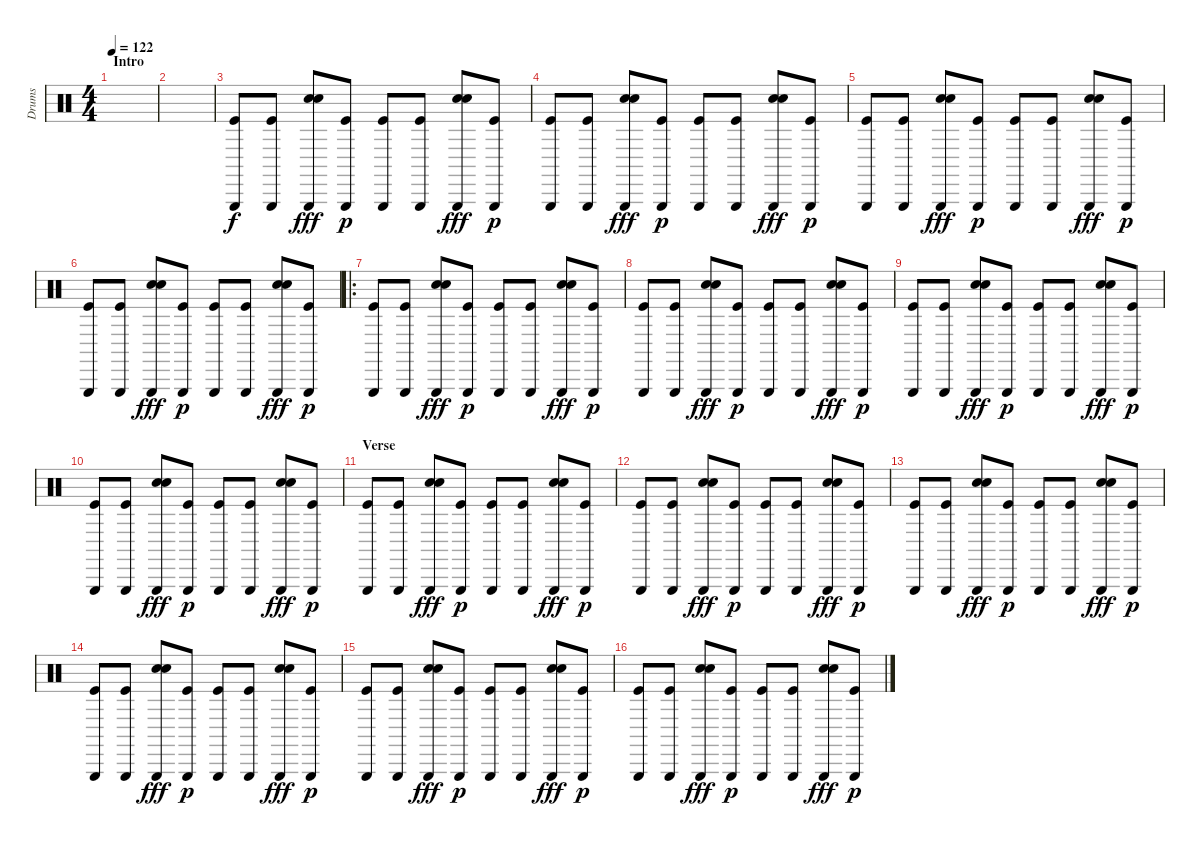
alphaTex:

\track ("Drums" "Drums") {instrument percussion}
\staff {score}
\articulation defaults
\ts (4 4)
\section ("" "Intro")
\tempo 122
\clef neutral
\ks c
|
|
("Triangle (hit)" "Kick (hit)").8 ("Triangle (hit)" "Kick (hit)").8 ("Triangle (hit)" "Snare (hit) 2" "Hand Clap (hit)").8{dy fff} ("Triangle (hit)" "Kick (hit)").8{dy p} ("Triangle (hit)" "Kick (hit)").8 ("Triangle (hit)" "Kick (hit)").8 ("Triangle (hit)" "Snare (hit) 2" "Hand Clap (hit)").8{dy fff} ("Triangle (hit)" "Kick (hit)").8{dy p} |
("Triangle (hit)" "Kick (hit)").8 ("Triangle (hit)" "Kick (hit)").8 ("Triangle (hit)" "Snare (hit) 2" "Hand Clap (hit)").8{dy fff} ("Triangle (hit)" "Kick (hit)").8{dy p} ("Triangle (hit)" "Kick (hit)").8 ("Triangle (hit)" "Kick (hit)").8 ("Triangle (hit)" "Snare (hit) 2" "Hand Clap (hit)").8{dy fff} ("Triangle (hit)" "Kick (hit)").8{dy p} |
("Triangle (hit)" "Kick (hit)").8 ("Triangle (hit)" "Kick (hit)").8 ("Triangle (hit)" "Snare (hit) 2" "Hand Clap (hit)").8{dy fff} ("Triangle (hit)" "Kick (hit)").8{dy p} ("Triangle (hit)" "Kick (hit)").8 ("Triangle (hit)" "Kick (hit)").8 ("Triangle (hit)" "Snare (hit) 2" "Hand Clap (hit)").8{dy fff} ("Triangle (hit)" "Kick (hit)").8{dy p} |
("Triangle (hit)" "Kick (hit)").8 ("Triangle (hit)" "Kick (hit)").8 ("Triangle (hit)" "Snare (hit) 2" "Hand Clap (hit)").8{dy fff} ("Triangle (hit)" "Kick (hit)").8{dy p} ("Triangle (hit)" "Kick (hit)").8 ("Triangle (hit)" "Kick (hit)").8 ("Triangle (hit)" "Snare (hit) 2" "Hand Clap (hit)").8{dy fff} ("Triangle (hit)" "Kick (hit)").8{dy p} |
\ro
("Triangle (hit)" "Kick (hit)").8 ("Triangle (hit)" "Kick (hit)").8 ("Triangle (hit)" "Snare (hit) 2" "Hand Clap (hit)").8{dy fff} ("Triangle (hit)" "Kick (hit)").8{dy p} ("Triangle (hit)" "Kick (hit)").8 ("Triangle (hit)" "Kick (hit)").8 ("Triangle (hit)" "Snare (hit) 2" "Hand Clap (hit)").8{dy fff} ("Triangle (hit)" "Kick (hit)").8{dy p} |
("Triangle (hit)" "Kick (hit)").8 ("Triangle (hit)" "Kick (hit)").8 ("Triangle (hit)" "Snare (hit) 2" "Hand Clap (hit)").8{dy fff} ("Triangle (hit)" "Kick (hit)").8{dy p} ("Triangle (hit)" "Kick (hit)").8 ("Triangle (hit)" "Kick (hit)").8 ("Triangle (hit)" "Snare (hit) 2" "Hand Clap (hit)").8{dy fff} ("Triangle (hit)" "Kick (hit)").8{dy p} |
("Triangle (hit)" "Kick (hit)").8 ("Triangle (hit)" "Kick (hit)").8 ("Triangle (hit)" "Snare (hit) 2" "Hand Clap (hit)").8{dy fff} ("Triangle (hit)" "Kick (hit)").8{dy p} ("Triangle (hit)" "Kick (hit)").8 ("Triangle (hit)" "Kick (hit)").8 ("Triangle (hit)" "Snare (hit) 2" "Hand Clap (hit)").8{dy fff} ("Triangle (hit)" "Kick (hit)").8{dy p} |
("Triangle (hit)" "Kick (hit)").8 ("Triangle (hit)" "Kick (hit)").8 ("Triangle (hit)" "Snare (hit) 2" "Hand Clap (hit)").8{dy fff} ("Triangle (hit)" "Kick (hit)").8{dy p} ("Triangle (hit)" "Kick (hit)").8 ("Triangle (hit)" "Kick (hit)").8 ("Triangle (hit)" "Snare (hit) 2" "Hand Clap (hit)").8{dy fff} ("Triangle (hit)" "Kick (hit)").8{dy p} |
\section ("" "Verse")
("Triangle (hit)" "Kick (hit)").8 ("Triangle (hit)" "Kick (hit)").8 ("Triangle (hit)" "Snare (hit) 2" "Hand Clap (hit)").8{dy fff} ("Triangle (hit)" "Kick (hit)").8{dy p} ("Triangle (hit)" "Kick (hit)").8 ("Triangle (hit)" "Kick (hit)").8 ("Triangle (hit)" "Snare (hit) 2" "Hand Clap (hit)").8{dy fff} ("Triangle (hit)" "Kick (hit)").8{dy p} |
("Triangle (hit)" "Kick (hit)").8 ("Triangle (hit)" "Kick (hit)").8 ("Triangle (hit)" "Snare (hit) 2" "Hand Clap (hit)").8{dy fff} ("Triangle (hit)" "Kick (hit)").8{dy p} ("Triangle (hit)" "Kick (hit)").8 ("Triangle (hit)" "Kick (hit)").8 ("Triangle (hit)" "Snare (hit) 2" "Hand Clap (hit)").8{dy fff} ("Triangle (hit)" "Kick (hit)").8{dy p} |
("Triangle (hit)" "Kick (hit)").8 ("Triangle (hit)" "Kick (hit)").8 ("Triangle (hit)" "Snare (hit) 2" "Hand Clap (hit)").8{dy fff} ("Triangle (hit)" "Kick (hit)").8{dy p} ("Triangle (hit)" "Kick (hit)").8 ("Triangle (hit)" "Kick (hit)").8 ("Triangle (hit)" "Snare (hit) 2" "Hand Clap (hit)").8{dy fff} ("Triangle (hit)" "Kick (hit)").8{dy p} |
("Triangle (hit)" "Kick (hit)").8 ("Triangle (hit)" "Kick (hit)").8 ("Triangle (hit)" "Snare (hit) 2" "Hand Clap (hit)").8{dy fff} ("Triangle (hit)" "Kick (hit)").8{dy p} ("Triangle (hit)" "Kick (hit)").8 ("Triangle (hit)" "Kick (hit)").8 ("Triangle (hit)" "Snare (hit) 2" "Hand Clap (hit)").8{dy fff} ("Triangle (hit)" "Kick (hit)").8{dy p} |
("Triangle (hit)" "Kick (hit)").8 ("Triangle (hit)" "Kick (hit)").8 ("Triangle (hit)" "Snare (hit) 2" "Hand Clap (hit)").8{dy fff} ("Triangle (hit)" "Kick (hit)").8{dy p} ("Triangle (hit)" "Kick (hit)").8 ("Triangle (hit)" "Kick (hit)").8 ("Triangle (hit)" "Snare (hit) 2" "Hand Clap (hit)").8{dy fff} ("Triangle (hit)" "Kick (hit)").8{dy p} |
("Triangle (hit)" "Kick (hit)").8 ("Triangle (hit)" "Kick (hit)").8 ("Triangle (hit)" "Snare (hit) 2" "Hand Clap (hit)").8{dy fff} ("Triangle (hit)" "Kick (hit)").8{dy p} ("Triangle (hit)" "Kick (hit)").8 ("Triangle (hit)" "Kick (hit)").8 ("Triangle (hit)" "Snare (hit) 2" "Hand Clap (hit)").8{dy fff} ("Triangle (hit)" "Kick (hit)").8{dy p}
